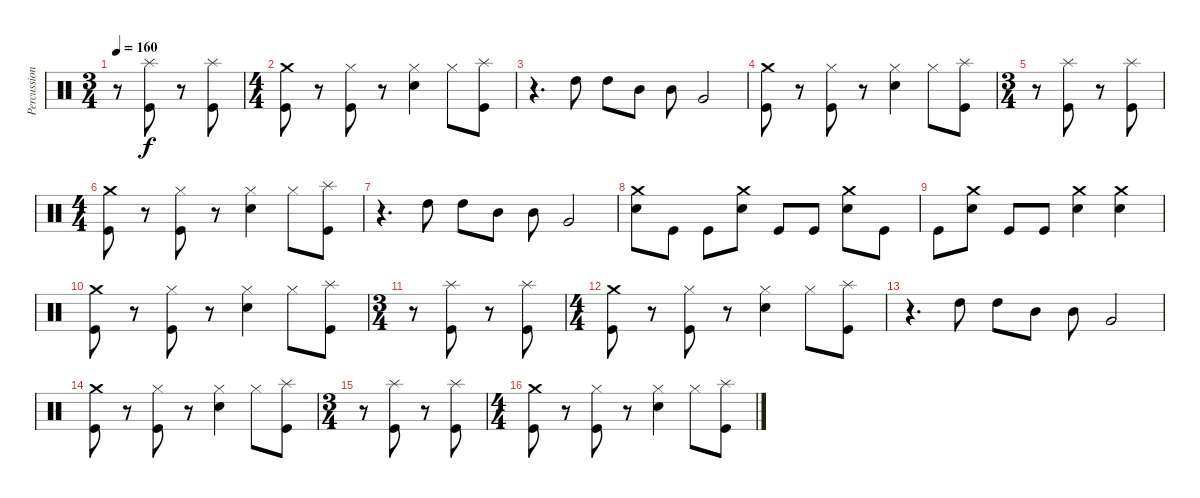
\track ("Percussion" "Percussion") {instrument percussion}
\staff {score}
\articulation defaults
\ts (3 4)
\tempo 160
\clef neutral
\ks c
r.8{dy f} ("Splash (hit)" "Kick (hit)").8 r.8 ("Splash (hit)" "Kick (hit)").8 |
\ts (4 4)
("Crash medium (hit)" "Kick (hit)").8 r.8 ("Hi-Hat (closed)" "Kick (hit)").8 r.8 ("Hi-Hat (closed)" "Snare (hit) 2").4 "Hi-Hat (closed)".8 ("Splash (hit)" "Kick (hit)").8 |
r.4{d} "High Tom (hit)".8 "High Tom (hit)".8 "Mid Tom (hit)".8 "Mid Tom (hit)".8 "Very Low Tom (hit)".2 |
("Crash medium (hit)" "Kick (hit)").8 r.8 ("Hi-Hat (closed)" "Kick (hit)").8 r.8 ("Hi-Hat (closed)" "Snare (hit) 2").4 "Hi-Hat (closed)".8 ("Splash (hit)" "Kick (hit)").8 |
\ts (3 4)
r.8 ("Splash (hit)" "Kick (hit)").8 r.8 ("Splash (hit)" "Kick (hit)").8 |
\ts (4 4)
("Crash medium (hit)" "Kick (hit)").8 r.8 ("Hi-Hat (closed)" "Kick (hit)").8 r.8 ("Hi-Hat (closed)" "Snare (hit) 2").4 "Hi-Hat (closed)".8 ("Splash (hit)" "Kick (hit)").8 |
r.4{d} "High Tom (hit)".8 "High Tom (hit)".8 "Mid Tom (hit)".8 "Mid Tom (hit)".8 "Very Low Tom (hit)".2 |
("Crash medium (hit)" "Snare (hit) 2").8 "Kick (hit)".8 "Kick (hit)".8 ("Crash medium (hit)" "Snare (hit) 2").8 "Kick (hit)".8 "Kick (hit)".8 ("Crash medium (hit)" "Snare (hit) 2").8 "Kick (hit)".8 |
"Kick (hit)".8 ("Crash medium (hit)" "Snare (hit) 2").8 "Kick (hit)".8 "Kick (hit)".8 ("Crash medium (hit)" "Snare (hit) 2").4 ("Crash medium (hit)" "Snare (hit) 2").4 |
("Crash medium (hit)" "Kick (hit)").8 r.8 ("Hi-Hat (closed)" "Kick (hit)").8 r.8 ("Hi-Hat (closed)" "Snare (hit) 2").4 "Hi-Hat (closed)".8 ("Splash (hit)" "Kick (hit)").8 |
\ts (3 4)
r.8 ("Splash (hit)" "Kick (hit)").8 r.8 ("Splash (hit)" "Kick (hit)").8 |
\ts (4 4)
("Crash medium (hit)" "Kick (hit)").8 r.8 ("Hi-Hat (closed)" "Kick (hit)").8 r.8 ("Hi-Hat (closed)" "Snare (hit) 2").4 "Hi-Hat (closed)".8 ("Splash (hit)" "Kick (hit)").8 |
r.4{d} "High Tom (hit)".8 "High Tom (hit)".8 "Mid Tom (hit)".8 "Mid Tom (hit)".8 "Very Low Tom (hit)".2 |
("Crash medium (hit)" "Kick (hit)").8 r.8 ("Hi-Hat (closed)" "Kick (hit)").8 r.8 ("Hi-Hat (closed)" "Snare (hit) 2").4 "Hi-Hat (closed)".8 ("Splash (hit)" "Kick (hit)").8 |
\ts (3 4)
r.8 ("Splash (hit)" "Kick (hit)").8 r.8 ("Splash (hit)" "Kick (hit)").8 |
\ts (4 4)
("Crash medium (hit)" "Kick (hit)").8 r.8 ("Hi-Hat (closed)" "Kick (hit)").8 r.8 ("Hi-Hat (closed)" "Snare (hit) 2").4 "Hi-Hat (closed)".8 ("Splash (hit)" "Kick (hit)").8
